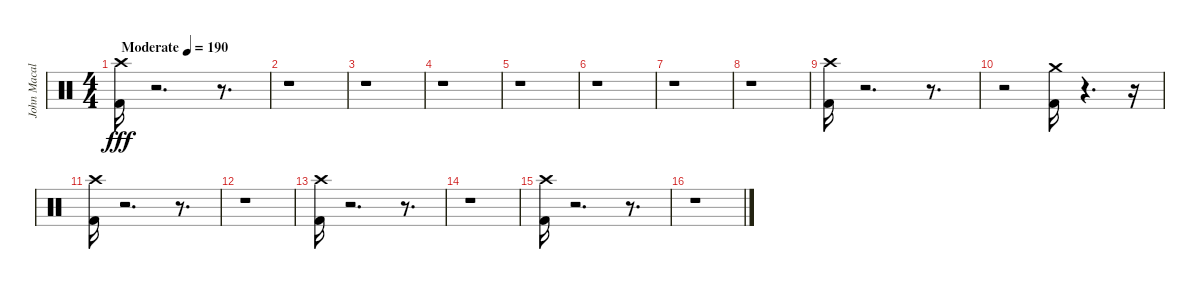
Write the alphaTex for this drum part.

\track ("John Macaluso drums" "John Macal") {instrument percussion}
\staff {score}
\articulation defaults
\ts (4 4)
\tempo (190 "Moderate")
\clef neutral
\ks c
("Kick (hit) 2" "Crash high (hit)").16{dy fff} r.2{d} r.8{d} |
r.1 |
r.1 |
r.1 |
r.1 |
r.1 |
r.1 |
r.1 |
("Kick (hit) 2" "Crash high (hit)").16 r.2{d} r.8{d} |
r.2 ("Kick (hit) 2" "Crash medium (hit)").16 r.4{d} r.16 |
("Kick (hit) 2" "Crash high (hit)").16 r.2{d} r.8{d} |
r.1 |
("Kick (hit) 2" "Crash high (hit)").16 r.2{d} r.8{d} |
r.1 |
("Kick (hit) 2" "Crash high (hit)").16 r.2{d} r.8{d} |
r.1
